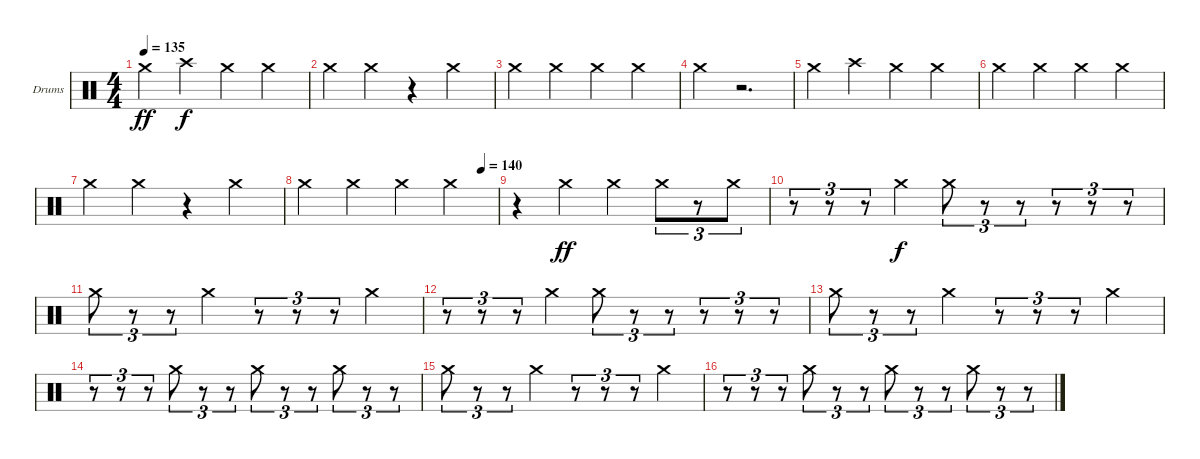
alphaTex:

\defaultSystemsLayout 4
\bracketExtendMode groupsimilarinstruments
\firstSystemTrackNameOrientation horizontal
\otherSystemsTrackNameOrientation horizontal
\track ("Drumkit" "Drums") {instrument percussion}
\staff {score}
\articulation defaults
\ts (4 4)
\tempo 135
\clef neutral
\scale
0.333333
\ks c "Crash medium (hit)".4{dy ff} "Crash high (hit)".4{dy f} "Crash medium (hit)".4 "Crash medium (hit)".4
|
\scale
0.333333 "Crash medium (hit)".4 "Crash medium (hit)".4 r.4 "Crash medium (hit)".4 |
\scale
0.333333 "Crash medium (hit)".4 "Crash medium (hit)".4 "Crash medium (hit)".4 "Crash medium (hit)".4 |
\scale
0.333333 "Crash medium (hit)".4 r.2{d} |
\scale
0.333333 "Crash medium (hit)".4 "Crash high (hit)".4 "Crash medium (hit)".4 "Crash medium (hit)".4 |
\scale
0.333333 "Crash medium (hit)".4 "Crash medium (hit)".4 "Crash medium (hit)".4 "Crash medium (hit)".4 |
\scale
0.333333 "Crash medium (hit)".4 "Crash medium (hit)".4 r.4 "Crash medium (hit)".4 |
\tempo (140 0.916667)
\scale
0.333333 "Crash medium (hit)".4 "Crash medium (hit)".4 "Crash medium (hit)".4 "Crash medium (hit)".4 |
\scale
0.333333 r.4 "Crash medium (hit)".4{dy ff} "Crash medium (hit)".4 "Crash medium (hit)".8{tu (3 2)} r.8{tu (3 2)} "Crash medium (hit)".8{tu (3 2)} |
\scale
0.333333 r.8{tu (3 2)} r.8{tu (3 2)} r.8{tu (3 2)} "Crash medium (hit)".4{dy f} "Crash medium (hit)".8{tu (3 2)} r.8{tu (3 2)} r.8{tu (3 2)} r.8{tu (3 2)} r.8{tu (3 2)} r.8{tu (3 2)} |
\scale
0.333333 "Crash medium (hit)".8{tu (3 2)} r.8{tu (3 2)} r.8{tu (3 2)} "Crash medium (hit)".4 r.8{tu (3 2)} r.8{tu (3 2)} r.8{tu (3 2)} "Crash medium (hit)".4 |
\scale
0.333333 r.8{tu (3 2)} r.8{tu (3 2)} r.8{tu (3 2)} "Crash medium (hit)".4 "Crash medium (hit)".8{tu (3 2)} r.8{tu (3 2)} r.8{tu (3 2)} r.8{tu (3 2)} r.8{tu (3 2)} r.8{tu (3 2)} |
\scale
0.333333 "Crash medium (hit)".8{tu (3 2)} r.8{tu (3 2)} r.8{tu (3 2)} "Crash medium (hit)".4 r.8{tu (3 2)} r.8{tu (3 2)} r.8{tu (3 2)} "Crash medium (hit)".4 |
\scale
0.333333 r.8{tu (3 2)} r.8{tu (3 2)} r.8{tu (3 2)} "Crash medium (hit)".8{tu (3 2)} r.8{tu (3 2)} r.8{tu (3 2)} "Crash medium (hit)".8{tu (3 2)} r.8{tu (3 2)} r.8{tu (3 2)} "Crash medium (hit)".8{tu (3 2)} r.8{tu (3 2)} r.8{tu (3 2)} |
\scale
0.333333 "Crash medium (hit)".8{tu (3 2)} r.8{tu (3 2)} r.8{tu (3 2)} "Crash medium (hit)".4 r.8{tu (3 2)} r.8{tu (3 2)} r.8{tu (3 2)} "Crash medium (hit)".4 |
\scale
0.333333 r.8{tu (3 2)} r.8{tu (3 2)} r.8{tu (3 2)} "Crash medium (hit)".8{tu (3 2)} r.8{tu (3 2)} r.8{tu (3 2)} "Crash medium (hit)".8{tu (3 2)} r.8{tu (3 2)} r.8{tu (3 2)} "Crash medium (hit)".8{tu (3 2)} r.8{tu (3 2)} r.8{tu (3 2)}
